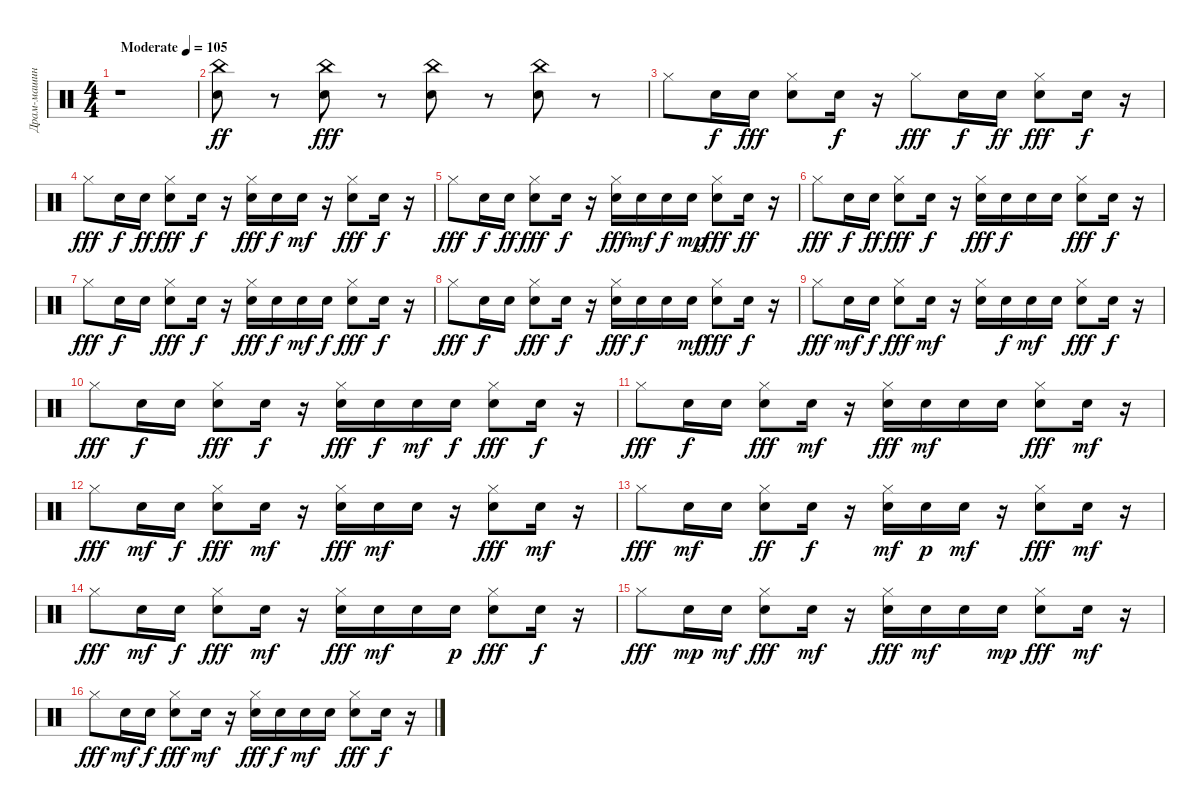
\track ("Драм-машина" "Драм-машин") {instrument percussion}
\staff {score}
\articulation defaults
\ts (4 4)
\tempo (105 "Moderate")
\clef neutral
\ks c
r.1{dy ff} |
("China (hit)" "Electric Snare (hit)").8 r.8 ("China (hit)" "Electric Snare (hit)").8{dy fff} r.8 ("China (hit)" "Electric Snare (hit)").8 r.8 ("China (hit)" "Electric Snare (hit)").8 r.8 |
"Hi-Hat (closed)".8 "Snare (hit) 2".16{dy f} "Snare (hit) 2".16{dy fff} ("Snare (hit) 2" "Hi-Hat (closed)").8 "Snare (hit) 2".16{dy f} r.16 "Hi-Hat (closed)".8{dy fff} "Snare (hit) 2".16{dy f} "Snare (hit) 2".16{dy ff} ("Snare (hit) 2" "Hi-Hat (closed)").8{dy fff} "Snare (hit) 2".16{dy f} r.16 |
"Hi-Hat (closed)".8{dy fff} "Snare (hit) 2".16{dy f} "Snare (hit) 2".16{dy ff} ("Snare (hit) 2" "Hi-Hat (closed)").8{dy fff} "Snare (hit) 2".16{dy f} r.16 ("Snare (hit) 2" "Hi-Hat (closed)").16{dy fff} "Snare (hit) 2".16{dy f} "Snare (hit) 2".16{dy mf} r.16 ("Snare (hit) 2" "Hi-Hat (closed)").8{dy fff} "Snare (hit) 2".16{dy f} r.16 |
"Hi-Hat (closed)".8{dy fff} "Snare (hit) 2".16{dy f} "Snare (hit) 2".16{dy ff} ("Snare (hit) 2" "Hi-Hat (closed)").8{dy fff} "Snare (hit) 2".16{dy f} r.16 ("Snare (hit) 2" "Hi-Hat (closed)").16{dy fff} "Snare (hit) 2".16{dy mf} "Snare (hit) 2".16{dy f} "Snare (hit) 2".16{dy mp} ("Snare (hit) 2" "Hi-Hat (closed)").8{dy fff} "Snare (hit) 2".16{dy ff} r.16 |
"Hi-Hat (closed)".8{dy fff} "Snare (hit) 2".16{dy f} "Snare (hit) 2".16{dy ff} ("Snare (hit) 2" "Hi-Hat (closed)").8{dy fff} "Snare (hit) 2".16{dy f} r.16 ("Hi-Hat (closed)" "Snare (hit) 2").16{dy fff} "Snare (hit) 2".16{dy f} "Snare (hit) 2".16 "Snare (hit) 2".16 ("Snare (hit) 2" "Hi-Hat (closed)").8{dy fff} "Snare (hit) 2".16{dy f} r.16 |
"Hi-Hat (closed)".8{dy fff} "Snare (hit) 2".16{dy f} "Snare (hit) 2".16 ("Snare (hit) 2" "Hi-Hat (closed)").8{dy fff} "Snare (hit) 2".16{dy f} r.16 ("Snare (hit) 2" "Hi-Hat (closed)").16{dy fff} "Snare (hit) 2".16{dy f} "Snare (hit) 2".16{dy mf} "Snare (hit) 2".16{dy f} ("Snare (hit) 2" "Hi-Hat (closed)").8{dy fff} "Snare (hit) 2".16{dy f} r.16 |
"Hi-Hat (closed)".8{dy fff} "Snare (hit) 2".16{dy f} "Snare (hit) 2".16 ("Snare (hit) 2" "Hi-Hat (closed)").8{dy fff} "Snare (hit) 2".16{dy f} r.16 ("Hi-Hat (closed)" "Snare (hit) 2").16{dy fff} "Snare (hit) 2".16{dy f} "Snare (hit) 2".16 "Snare (hit) 2".16{dy mf} ("Snare (hit) 2" "Hi-Hat (closed)").8{dy fff} "Snare (hit) 2".16{dy f} r.16 |
"Hi-Hat (closed)".8{dy fff} "Snare (hit) 2".16{dy mf} "Snare (hit) 2".16{dy f} ("Snare (hit) 2" "Hi-Hat (closed)").8{dy fff} "Snare (hit) 2".16{dy mf} r.16 ("Hi-Hat (closed)" "Snare (hit) 2").16 "Snare (hit) 2".16{dy f} "Snare (hit) 2".16{dy mf} "Snare (hit) 2".16 ("Snare (hit) 2" "Hi-Hat (closed)").8{dy fff} "Snare (hit) 2".16{dy f} r.16 |
"Hi-Hat (closed)".8{dy fff} "Snare (hit) 2".16{dy f} "Snare (hit) 2".16 ("Snare (hit) 2" "Hi-Hat (closed)").8{dy fff} "Snare (hit) 2".16{dy f} r.16 ("Snare (hit) 2" "Hi-Hat (closed)").16{dy fff} "Snare (hit) 2".16{dy f} "Snare (hit) 2".16{dy mf} "Snare (hit) 2".16{dy f} ("Snare (hit) 2" "Hi-Hat (closed)").8{dy fff} "Snare (hit) 2".16{dy f} r.16 |
"Hi-Hat (closed)".8{dy fff} "Snare (hit) 2".16{dy f} "Snare (hit) 2".16 ("Snare (hit) 2" "Hi-Hat (closed)").8{dy fff} "Snare (hit) 2".16{dy mf} r.16 ("Snare (hit) 2" "Hi-Hat (closed)").16{dy fff} "Snare (hit) 2".16{dy mf} "Snare (hit) 2".16 "Snare (hit) 2".16 ("Snare (hit) 2" "Hi-Hat (closed)").8{dy fff} "Snare (hit) 2".16{dy mf} r.16 |
"Hi-Hat (closed)".8{dy fff} "Snare (hit) 2".16{dy mf} "Snare (hit) 2".16{dy f} ("Snare (hit) 2" "Hi-Hat (closed)").8{dy fff} "Snare (hit) 2".16{dy mf} r.16 ("Snare (hit) 2" "Hi-Hat (closed)").16{dy fff} "Snare (hit) 2".16{dy mf} "Snare (hit) 2".16 r.16 ("Snare (hit) 2" "Hi-Hat (closed)").8{dy fff} "Snare (hit) 2".16{dy mf} r.16 |
"Hi-Hat (closed)".8{dy fff} "Snare (hit) 2".16{dy mf} "Snare (hit) 2".16 ("Snare (hit) 2" "Hi-Hat (closed)").8{dy ff} "Snare (hit) 2".16{dy f} r.16 ("Hi-Hat (closed)" "Snare (hit) 2").16{dy mf} "Snare (hit) 2".16{dy p} "Snare (hit) 2".16{dy mf} r.16 ("Snare (hit) 2" "Hi-Hat (closed)").8{dy fff} "Snare (hit) 2".16{dy mf} r.16 |
"Hi-Hat (closed)".8{dy fff} "Snare (hit) 2".16{dy mf} "Snare (hit) 2".16{dy f} ("Snare (hit) 2" "Hi-Hat (closed)").8{dy fff} "Snare (hit) 2".16{dy mf} r.16 ("Snare (hit) 2" "Hi-Hat (closed)").16{dy fff} "Snare (hit) 2".16{dy mf} "Snare (hit) 2".16 "Snare (hit) 2".16{dy p} ("Snare (hit) 2" "Hi-Hat (closed)").8{dy fff} "Snare (hit) 2".16{dy f} r.16 |
"Hi-Hat (closed)".8{dy fff} "Snare (hit) 2".16{dy mp} "Snare (hit) 2".16{dy mf} ("Snare (hit) 2" "Hi-Hat (closed)").8{dy fff} "Snare (hit) 2".16{dy mf} r.16 ("Snare (hit) 2" "Hi-Hat (closed)").16{dy fff} "Snare (hit) 2".16{dy mf} "Snare (hit) 2".16 "Snare (hit) 2".16{dy mp} ("Snare (hit) 2" "Hi-Hat (closed)").8{dy fff} "Snare (hit) 2".16{dy mf} r.16 |
"Hi-Hat (closed)".8{dy fff} "Snare (hit) 2".16{dy mf} "Snare (hit) 2".16{dy f} ("Snare (hit) 2" "Hi-Hat (closed)").8{dy fff} "Snare (hit) 2".16{dy mf} r.16 ("Snare (hit) 2" "Hi-Hat (closed)").16{dy fff} "Snare (hit) 2".16{dy f} "Snare (hit) 2".16{dy mf} "Snare (hit) 2".16 ("Snare (hit) 2" "Hi-Hat (closed)").8{dy fff} "Snare (hit) 2".16{dy f} r.16
